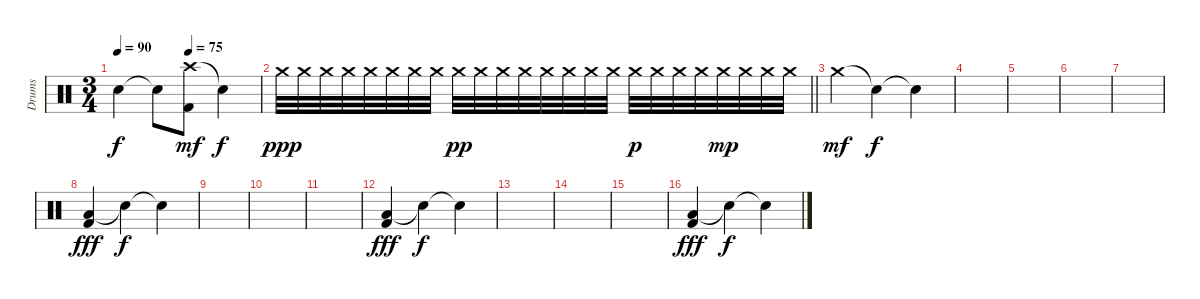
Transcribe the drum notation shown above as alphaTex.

\track ("Drums" "Drums") {instrument percussion}
\staff {score}
\articulation defaults
\ts (3 4)
\tempo 90
\tempo (75 0.5)
\clef neutral
\ks c "Snare (hit)"{t}.4{dy f} "Snare (hit)"{t}.8
("Crash high (hit)" "Kick (hit) 2").8{dy mf} "Snare (hit)"{t}.4{dy f} |
\barLineRight lightlight "Crash medium (hit)".32{dy ppp} "Crash medium (hit)".32 "Crash medium (hit)".32 "Crash medium (hit)".32 "Crash medium (hit)".32 "Crash medium (hit)".32 "Crash medium (hit)".32 "Crash medium (hit)".32 "Crash medium (hit)".32{dy pp} "Crash medium (hit)".32 "Crash medium (hit)".32 "Crash medium (hit)".32 "Crash medium (hit)".32 "Crash medium (hit)".32 "Crash medium (hit)".32 "Crash medium (hit)".32 "Crash medium (hit)".32{dy p} "Crash medium (hit)".32 "Crash medium (hit)".32 "Crash medium (hit)".32 "Crash medium (hit)".32{dy mp} "Crash medium (hit)".32 "Crash medium (hit)".32 "Crash medium (hit)".32
|
\section ("" "")
"Crash medium (hit)".4{dy mf} "Snare (hit)"{t}.4{dy f} "Snare (hit)"{t}.4 |
|
|
|
|
("Low Tom (hit)" "Kick (hit) 2").4{dy fff} "Snare (hit)"{t}.4{dy f} "Snare (hit)"{t}.4 |
|
|
|
("Low Tom (hit)" "Kick (hit) 2").4{dy fff} "Snare (hit)"{t}.4{dy f} "Snare (hit)"{t}.4 |
|
|
|
("Low Tom (hit)" "Kick (hit) 2").4{dy fff} "Snare (hit)"{t}.4{dy f} "Snare (hit)"{t}.4
